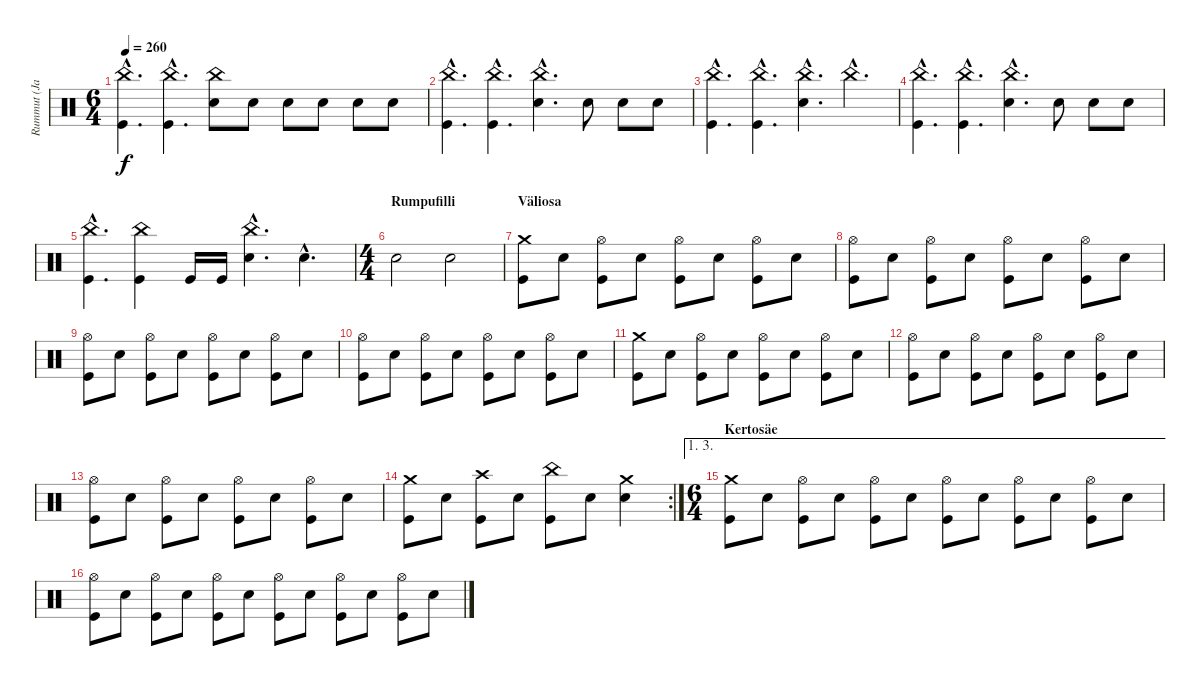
\track ("Rummut (Janne)" "Rummut (Ja") {instrument percussion}
\staff {score}
\articulation defaults
\ts (6 4)
\tempo 260
\clef neutral
\ks c
("China (hit)"{hac} "Kick (hit)"{hac}).4{d dy f} ("China (hit)"{hac} "Kick (hit)"{hac}).4{d} ("China (hit)" "Snare (hit) 2").8 "Snare (hit) 2".8 "Snare (hit) 2".8 "Snare (hit) 2".8 "Snare (hit) 2".8 "Snare (hit) 2".8 |
("China (hit)"{hac} "Kick (hit)"{hac}).4{d} ("China (hit)"{hac} "Kick (hit)"{hac}).4{d} ("China (hit)"{hac} "Snare (hit) 2"{hac}).4{d} "Snare (hit) 2".8 "Snare (hit) 2".8 "Snare (hit) 2".8 |
("China (hit)"{hac} "Kick (hit)"{hac}).4{d} ("China (hit)"{hac} "Kick (hit)"{hac}).4{d} ("China (hit)"{hac} "Snare (hit) 2"{hac}).4{d} "China (hit)"{hac}.4{d} |
("China (hit)"{hac} "Kick (hit)"{hac}).4{d} ("China (hit)"{hac} "Kick (hit)"{hac}).4{d} ("China (hit)"{hac} "Snare (hit) 2"{hac}).4{d} "Snare (hit) 2".8 "Snare (hit) 2".8 "Snare (hit) 2".8 |
("China (hit)"{hac} "Kick (hit)"{hac}).4{d} ("China (hit)" "Kick (hit)").4 "Kick (hit)".16 "Kick (hit)".16 ("China (hit)"{hac} "Snare (hit) 2"{hac}).4{d} "Snare (hit) 2"{hac}.4{d} |
\ts (4 4)
\section ("" "Rumpufilli")
"Snare (hit) 2".2 "Snare (hit) 2".2 |
\section ("" "Väliosa")
("Crash medium (hit)" "Kick (hit)").8 "Snare (hit) 2".8 ("Hi-Hat (open)" "Kick (hit)").8 "Snare (hit) 2".8 ("Hi-Hat (open)" "Kick (hit)").8 "Snare (hit) 2".8 ("Hi-Hat (open)" "Kick (hit)").8 "Snare (hit) 2".8 |
("Hi-Hat (open)" "Kick (hit)").8 "Snare (hit) 2".8 ("Hi-Hat (open)" "Kick (hit)").8 "Snare (hit) 2".8 ("Hi-Hat (open)" "Kick (hit)").8 "Snare (hit) 2".8 ("Hi-Hat (open)" "Kick (hit)").8 "Snare (hit) 2".8 |
("Hi-Hat (open)" "Kick (hit)").8 "Snare (hit) 2".8 ("Hi-Hat (open)" "Kick (hit)").8 "Snare (hit) 2".8 ("Hi-Hat (open)" "Kick (hit)").8 "Snare (hit) 2".8 ("Hi-Hat (open)" "Kick (hit)").8 "Snare (hit) 2".8 |
("Hi-Hat (open)" "Kick (hit)").8 "Snare (hit) 2".8 ("Hi-Hat (open)" "Kick (hit)").8 "Snare (hit) 2".8 ("Hi-Hat (open)" "Kick (hit)").8 "Snare (hit) 2".8 ("Hi-Hat (open)" "Kick (hit)").8 "Snare (hit) 2".8 |
("Crash medium (hit)" "Kick (hit)").8 "Snare (hit) 2".8 ("Hi-Hat (open)" "Kick (hit)").8 "Snare (hit) 2".8 ("Hi-Hat (open)" "Kick (hit)").8 "Snare (hit) 2".8 ("Hi-Hat (open)" "Kick (hit)").8 "Snare (hit) 2".8 |
("Hi-Hat (open)" "Kick (hit)").8 "Snare (hit) 2".8 ("Hi-Hat (open)" "Kick (hit)").8 "Snare (hit) 2".8 ("Hi-Hat (open)" "Kick (hit)").8 "Snare (hit) 2".8 ("Hi-Hat (open)" "Kick (hit)").8 "Snare (hit) 2".8 |
("Hi-Hat (open)" "Kick (hit)").8 "Snare (hit) 2".8 ("Hi-Hat (open)" "Kick (hit)").8 "Snare (hit) 2".8 ("Hi-Hat (open)" "Kick (hit)").8 "Snare (hit) 2".8 ("Hi-Hat (open)" "Kick (hit)").8 "Snare (hit) 2".8 |
\rc 2
("Crash medium (hit)" "Kick (hit)").8 "Snare (hit) 2".8 ("Crash high (hit)" "Kick (hit)").8 "Snare (hit) 2".8 ("China (hit)" "Kick (hit)").8 "Snare (hit) 2".8 ("Crash medium (hit)" "Snare (hit) 2").4 |
\ae (1 3)
\ts (6 4)
\section ("" "Kertosäe")
("Crash medium (hit)" "Kick (hit)").8 "Snare (hit) 2".8 ("Hi-Hat (open)" "Kick (hit)").8 "Snare (hit) 2".8 ("Hi-Hat (open)" "Kick (hit)").8 "Snare (hit) 2".8 ("Hi-Hat (open)" "Kick (hit)").8 "Snare (hit) 2".8 ("Hi-Hat (open)" "Kick (hit)").8 "Snare (hit) 2".8 ("Hi-Hat (open)" "Kick (hit)").8 "Snare (hit) 2".8 |
("Hi-Hat (open)" "Kick (hit)").8 "Snare (hit) 2".8 ("Hi-Hat (open)" "Kick (hit)").8 "Snare (hit) 2".8 ("Hi-Hat (open)" "Kick (hit)").8 "Snare (hit) 2".8 ("Hi-Hat (open)" "Kick (hit)").8 "Snare (hit) 2".8 ("Hi-Hat (open)" "Kick (hit)").8 "Snare (hit) 2".8 ("Hi-Hat (open)" "Kick (hit)").8 "Snare (hit) 2".8
